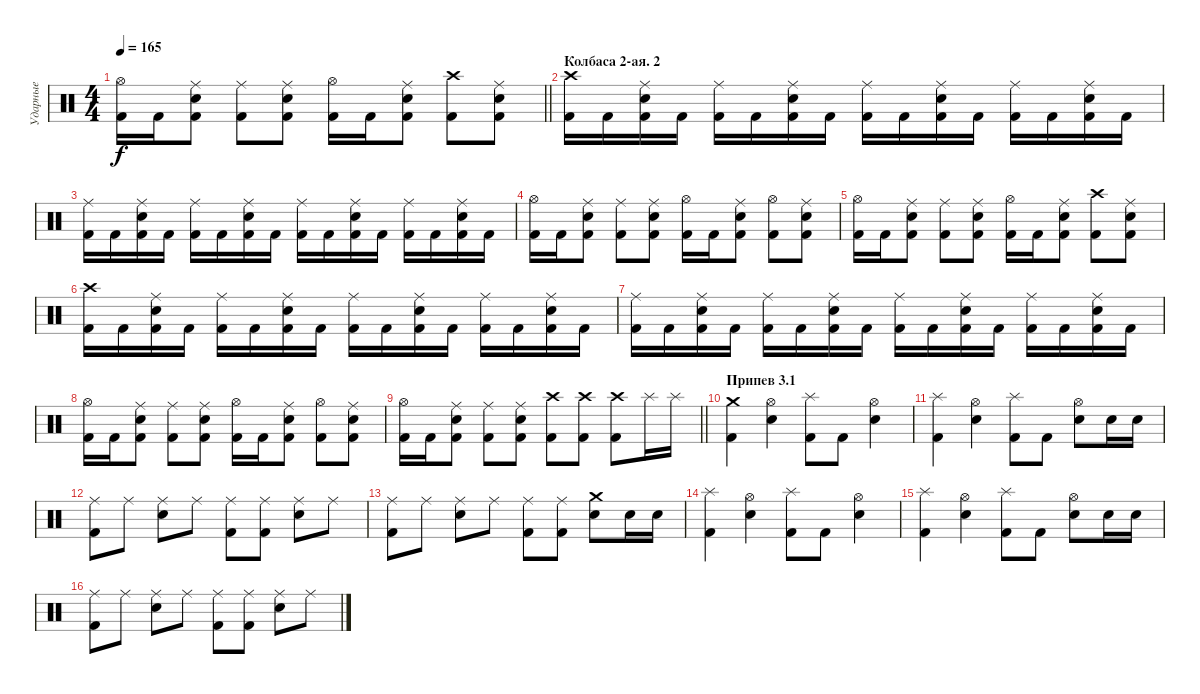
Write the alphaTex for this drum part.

\track ("Ударные" "Ударные") {instrument percussion}
\staff {score}
\articulation defaults
\ts (4 4)
\tempo 165
\clef neutral
\barLineRight lightlight
\ks c
("Hi-Hat (open)" "Kick (hit) 2").16{dy f} "Kick (hit) 2".16 ("Ride (middle)" "Electric Snare (hit)" "Kick (hit) 2").8 ("Ride (middle)" "Kick (hit) 2").8 ("Ride (middle)" "Electric Snare (hit)" "Kick (hit) 2").8 ("Hi-Hat (open)" "Kick (hit) 2").16 "Kick (hit) 2".16 ("Ride (middle)" "Electric Snare (hit)" "Kick (hit) 2").8 ("Crash high (hit)" "Kick (hit) 2").8 ("Ride (middle)" "Electric Snare (hit)" "Kick (hit) 2").8 |
\section ("" "Колбаса 2-ая. 2")
("Crash high (hit)" "Kick (hit) 2").16 "Kick (hit) 2".16 ("Ride (middle)" "Electric Snare (hit)" "Kick (hit) 2").16 "Kick (hit) 2".16 ("Ride (middle)" "Kick (hit) 2").16 "Kick (hit) 2".16 ("Ride (middle)" "Electric Snare (hit)" "Kick (hit) 2").16 "Kick (hit) 2".16 ("Ride (middle)" "Kick (hit) 2").16 "Kick (hit) 2".16 ("Ride (middle)" "Electric Snare (hit)" "Kick (hit) 2").16 "Kick (hit) 2".16 ("Ride (middle)" "Kick (hit) 2").16 "Kick (hit) 2".16 ("Ride (middle)" "Electric Snare (hit)" "Kick (hit) 2").16 "Kick (hit) 2".16 |
("Ride (middle)" "Kick (hit) 2").16 "Kick (hit) 2".16 ("Ride (middle)" "Electric Snare (hit)" "Kick (hit) 2").16 "Kick (hit) 2".16 ("Ride (middle)" "Kick (hit) 2").16 "Kick (hit) 2".16 ("Ride (middle)" "Electric Snare (hit)" "Kick (hit) 2").16 "Kick (hit) 2".16 ("Ride (middle)" "Kick (hit) 2").16 "Kick (hit) 2".16 ("Ride (middle)" "Electric Snare (hit)" "Kick (hit) 2").16 "Kick (hit) 2".16 ("Ride (middle)" "Kick (hit) 2").16 "Kick (hit) 2".16 ("Ride (middle)" "Electric Snare (hit)" "Kick (hit) 2").16 "Kick (hit) 2".16 |
("Hi-Hat (open)" "Kick (hit) 2").16 "Kick (hit) 2".16 ("Ride (middle)" "Electric Snare (hit)" "Kick (hit) 2").8 ("Ride (middle)" "Kick (hit) 2").8 ("Ride (middle)" "Electric Snare (hit)" "Kick (hit) 2").8 ("Hi-Hat (open)" "Kick (hit) 2").16 "Kick (hit) 2".16 ("Ride (middle)" "Electric Snare (hit)" "Kick (hit) 2").8 ("Hi-Hat (open)" "Kick (hit) 2").8 ("Ride (middle)" "Electric Snare (hit)" "Kick (hit) 2").8 |
("Hi-Hat (open)" "Kick (hit) 2").16 "Kick (hit) 2".16 ("Ride (middle)" "Electric Snare (hit)" "Kick (hit) 2").8 ("Ride (middle)" "Kick (hit) 2").8 ("Ride (middle)" "Electric Snare (hit)" "Kick (hit) 2").8 ("Hi-Hat (open)" "Kick (hit) 2").16 "Kick (hit) 2".16 ("Ride (middle)" "Electric Snare (hit)" "Kick (hit) 2").8 ("Crash high (hit)" "Kick (hit) 2").8 ("Ride (middle)" "Electric Snare (hit)" "Kick (hit) 2").8 |
("Crash high (hit)" "Kick (hit) 2").16 "Kick (hit) 2".16 ("Ride (middle)" "Electric Snare (hit)" "Kick (hit) 2").16 "Kick (hit) 2".16 ("Ride (middle)" "Kick (hit) 2").16 "Kick (hit) 2".16 ("Ride (middle)" "Electric Snare (hit)" "Kick (hit) 2").16 "Kick (hit) 2".16 ("Ride (middle)" "Kick (hit) 2").16 "Kick (hit) 2".16 ("Ride (middle)" "Electric Snare (hit)" "Kick (hit) 2").16 "Kick (hit) 2".16 ("Ride (middle)" "Kick (hit) 2").16 "Kick (hit) 2".16 ("Ride (middle)" "Electric Snare (hit)" "Kick (hit) 2").16 "Kick (hit) 2".16 |
("Ride (middle)" "Kick (hit) 2").16 "Kick (hit) 2".16 ("Ride (middle)" "Electric Snare (hit)" "Kick (hit) 2").16 "Kick (hit) 2".16 ("Ride (middle)" "Kick (hit) 2").16 "Kick (hit) 2".16 ("Ride (middle)" "Electric Snare (hit)" "Kick (hit) 2").16 "Kick (hit) 2".16 ("Ride (middle)" "Kick (hit) 2").16 "Kick (hit) 2".16 ("Ride (middle)" "Electric Snare (hit)" "Kick (hit) 2").16 "Kick (hit) 2".16 ("Ride (middle)" "Kick (hit) 2").16 "Kick (hit) 2".16 ("Ride (middle)" "Electric Snare (hit)" "Kick (hit) 2").16 "Kick (hit) 2".16 |
("Hi-Hat (open)" "Kick (hit) 2").16 "Kick (hit) 2".16 ("Ride (middle)" "Electric Snare (hit)" "Kick (hit) 2").8 ("Ride (middle)" "Kick (hit) 2").8 ("Ride (middle)" "Electric Snare (hit)" "Kick (hit) 2").8 ("Hi-Hat (open)" "Kick (hit) 2").16 "Kick (hit) 2".16 ("Ride (middle)" "Electric Snare (hit)" "Kick (hit) 2").8 ("Hi-Hat (open)" "Kick (hit) 2").8 ("Ride (middle)" "Electric Snare (hit)" "Kick (hit) 2").8 |
\barLineRight lightlight
("Hi-Hat (open)" "Kick (hit) 2").16 "Kick (hit) 2".16 ("Ride (middle)" "Electric Snare (hit)" "Kick (hit) 2").8 ("Ride (middle)" "Kick (hit) 2").8 ("Ride (middle)" "Electric Snare (hit)" "Kick (hit) 2").8 ("Crash high (hit)" "Kick (hit) 2").8 ("Crash high (hit)" "Kick (hit) 2").8 ("Crash high (hit)" "Kick (hit) 2").8 "Splash (hit)".16 "Splash (hit)".16 |
\section ("" "Припев 3.1")
("Crash medium (hit)" "Kick (hit) 2").4 ("Hi-Hat (open)" "Electric Snare (hit)").4 ("Splash (hit)" "Kick (hit) 2").8 "Kick (hit) 2".8 ("Hi-Hat (open)" "Electric Snare (hit)").4 |
("Splash (hit)" "Kick (hit) 2").4 ("Hi-Hat (open)" "Electric Snare (hit)").4 ("Splash (hit)" "Kick (hit) 2").8 "Kick (hit) 2".8 ("Hi-Hat (open)" "Electric Snare (hit)").8 "Electric Snare (hit)".16 "Electric Snare (hit)".16 |
("Ride (middle)" "Kick (hit) 2").8 "Ride (middle)".8 ("Ride (middle)" "Electric Snare (hit)").8 "Ride (middle)".8 ("Ride (middle)" "Kick (hit) 2").8 ("Ride (middle)" "Kick (hit) 2").8 ("Ride (middle)" "Electric Snare (hit)").8 "Ride (middle)".8 |
("Ride (middle)" "Kick (hit) 2").8 "Ride (middle)".8 ("Ride (middle)" "Electric Snare (hit)").8 "Ride (middle)".8 ("Ride (middle)" "Kick (hit) 2").8 ("Ride (middle)" "Kick (hit) 2").8 ("Crash medium (hit)" "Electric Snare (hit)").8 "Electric Snare (hit)".16 "Electric Snare (hit)".16 |
("Splash (hit)" "Kick (hit) 2").4 ("Hi-Hat (open)" "Electric Snare (hit)").4 ("Splash (hit)" "Kick (hit) 2").8 "Kick (hit) 2".8 ("Hi-Hat (open)" "Electric Snare (hit)").4 |
("Splash (hit)" "Kick (hit) 2").4 ("Hi-Hat (open)" "Electric Snare (hit)").4 ("Splash (hit)" "Kick (hit) 2").8 "Kick (hit) 2".8 ("Hi-Hat (open)" "Electric Snare (hit)").8 "Electric Snare (hit)".16 "Electric Snare (hit)".16 |
("Ride (middle)" "Kick (hit) 2").8 "Ride (middle)".8 ("Ride (middle)" "Electric Snare (hit)").8 "Ride (middle)".8 ("Ride (middle)" "Kick (hit) 2").8 ("Ride (middle)" "Kick (hit) 2").8 ("Ride (middle)" "Electric Snare (hit)").8 "Ride (middle)".8
